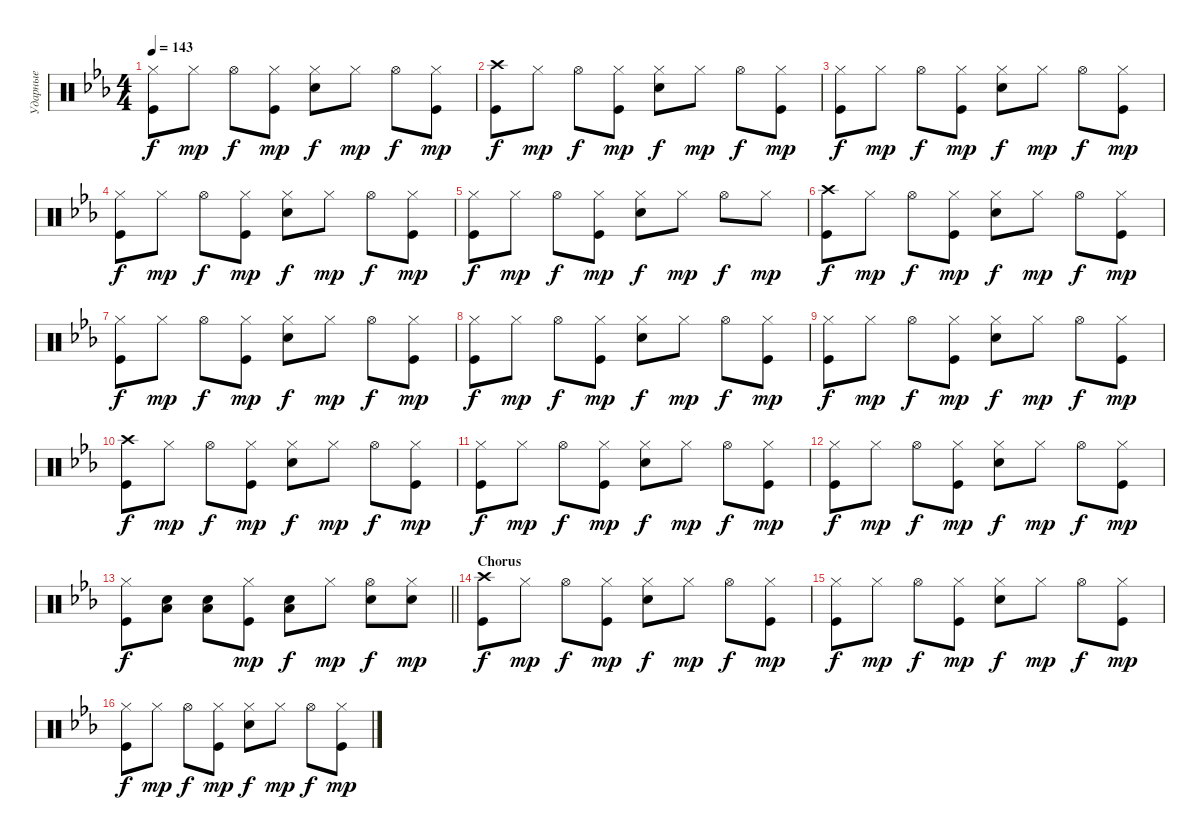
\track ("Ударные" "Ударные") {instrument percussion}
\staff {score}
\articulation defaults
\ts (4 4)
\tempo 143
\clef neutral
\ks cminor
("Kick (hit)" "Hi-Hat (closed)").8{dy f} "Hi-Hat (closed)".8{dy mp} "Hi-Hat (open)".8{dy f} ("Kick (hit)" "Hi-Hat (closed)").8{dy mp} ("Snare (hit) 2" "Hi-Hat (closed)").8{dy f} "Hi-Hat (closed)".8{dy mp} "Hi-Hat (open)".8{dy f} ("Kick (hit)" "Hi-Hat (closed)").8{dy mp} |
("Kick (hit)" "Crash high (hit)").8{dy f} "Hi-Hat (closed)".8{dy mp} "Hi-Hat (open)".8{dy f} ("Kick (hit)" "Hi-Hat (closed)").8{dy mp} ("Snare (hit) 2" "Hi-Hat (closed)").8{dy f} "Hi-Hat (closed)".8{dy mp} "Hi-Hat (open)".8{dy f} ("Kick (hit)" "Hi-Hat (closed)").8{dy mp} |
("Kick (hit)" "Hi-Hat (closed)").8{dy f} "Hi-Hat (closed)".8{dy mp} "Hi-Hat (open)".8{dy f} ("Kick (hit)" "Hi-Hat (closed)").8{dy mp} ("Snare (hit) 2" "Hi-Hat (closed)").8{dy f} "Hi-Hat (closed)".8{dy mp} "Hi-Hat (open)".8{dy f} ("Kick (hit)" "Hi-Hat (closed)").8{dy mp} |
("Kick (hit)" "Hi-Hat (closed)").8{dy f} "Hi-Hat (closed)".8{dy mp} "Hi-Hat (open)".8{dy f} ("Kick (hit)" "Hi-Hat (closed)").8{dy mp} ("Snare (hit) 2" "Hi-Hat (closed)").8{dy f} "Hi-Hat (closed)".8{dy mp} "Hi-Hat (open)".8{dy f} ("Kick (hit)" "Hi-Hat (closed)").8{dy mp} |
("Kick (hit)" "Hi-Hat (closed)").8{dy f} "Hi-Hat (closed)".8{dy mp} "Hi-Hat (open)".8{dy f} ("Kick (hit)" "Hi-Hat (closed)").8{dy mp} ("Snare (hit) 2" "Hi-Hat (closed)").8{dy f} "Hi-Hat (closed)".8{dy mp} "Hi-Hat (open)".8{dy f} "Hi-Hat (closed)".8{dy mp} |
("Kick (hit)" "Crash high (hit)").8{dy f} "Hi-Hat (closed)".8{dy mp} "Hi-Hat (open)".8{dy f} ("Kick (hit)" "Hi-Hat (closed)").8{dy mp} ("Snare (hit) 2" "Hi-Hat (closed)").8{dy f} "Hi-Hat (closed)".8{dy mp} "Hi-Hat (open)".8{dy f} ("Kick (hit)" "Hi-Hat (closed)").8{dy mp} |
("Kick (hit)" "Hi-Hat (closed)").8{dy f} "Hi-Hat (closed)".8{dy mp} "Hi-Hat (open)".8{dy f} ("Kick (hit)" "Hi-Hat (closed)").8{dy mp} ("Snare (hit) 2" "Hi-Hat (closed)").8{dy f} "Hi-Hat (closed)".8{dy mp} "Hi-Hat (open)".8{dy f} ("Kick (hit)" "Hi-Hat (closed)").8{dy mp} |
("Kick (hit)" "Hi-Hat (closed)").8{dy f} "Hi-Hat (closed)".8{dy mp} "Hi-Hat (open)".8{dy f} ("Kick (hit)" "Hi-Hat (closed)").8{dy mp} ("Snare (hit) 2" "Hi-Hat (closed)").8{dy f} "Hi-Hat (closed)".8{dy mp} "Hi-Hat (open)".8{dy f} ("Kick (hit)" "Hi-Hat (closed)").8{dy mp} |
("Kick (hit)" "Hi-Hat (closed)").8{dy f} "Hi-Hat (closed)".8{dy mp} "Hi-Hat (open)".8{dy f} ("Kick (hit)" "Hi-Hat (closed)").8{dy mp} ("Snare (hit) 2" "Hi-Hat (closed)").8{dy f} "Hi-Hat (closed)".8{dy mp} "Hi-Hat (open)".8{dy f} ("Kick (hit)" "Hi-Hat (closed)").8{dy mp} |
("Kick (hit)" "Crash high (hit)").8{dy f} "Hi-Hat (closed)".8{dy mp} "Hi-Hat (open)".8{dy f} ("Kick (hit)" "Hi-Hat (closed)").8{dy mp} ("Snare (hit) 2" "Hi-Hat (closed)").8{dy f} "Hi-Hat (closed)".8{dy mp} "Hi-Hat (open)".8{dy f} ("Kick (hit)" "Hi-Hat (closed)").8{dy mp} |
("Kick (hit)" "Hi-Hat (closed)").8{dy f} "Hi-Hat (closed)".8{dy mp} "Hi-Hat (open)".8{dy f} ("Kick (hit)" "Hi-Hat (closed)").8{dy mp} ("Snare (hit) 2" "Hi-Hat (closed)").8{dy f} "Hi-Hat (closed)".8{dy mp} "Hi-Hat (open)".8{dy f} ("Kick (hit)" "Hi-Hat (closed)").8{dy mp} |
("Kick (hit)" "Hi-Hat (closed)").8{dy f} "Hi-Hat (closed)".8{dy mp} "Hi-Hat (open)".8{dy f} ("Kick (hit)" "Hi-Hat (closed)").8{dy mp} ("Snare (hit) 2" "Hi-Hat (closed)").8{dy f} "Hi-Hat (closed)".8{dy mp} "Hi-Hat (open)".8{dy f} ("Kick (hit)" "Hi-Hat (closed)").8{dy mp} |
\barLineRight lightlight
("Kick (hit)" "Hi-Hat (closed)").8{dy f} ("Snare (hit) 2" "Low Tom (hit)").8 ("Snare (hit) 2" "Low Tom (hit)").8 ("Kick (hit)" "Hi-Hat (closed)").8{dy mp} ("Snare (hit) 2" "Low Tom (hit)").8{dy f} "Hi-Hat (closed)".8{dy mp} ("Hi-Hat (open)" "Snare (hit) 2").8{dy f} ("Hi-Hat (closed)" "Snare (hit) 2").8{dy mp} |
\section ("" "Chorus")
("Kick (hit)" "Crash high (hit)").8{dy f} "Hi-Hat (closed)".8{dy mp} "Hi-Hat (open)".8{dy f} ("Kick (hit)" "Hi-Hat (closed)").8{dy mp} ("Snare (hit) 2" "Hi-Hat (closed)").8{dy f} "Hi-Hat (closed)".8{dy mp} "Hi-Hat (open)".8{dy f} ("Kick (hit)" "Hi-Hat (closed)").8{dy mp} |
("Kick (hit)" "Hi-Hat (closed)").8{dy f} "Hi-Hat (closed)".8{dy mp} "Hi-Hat (open)".8{dy f} ("Kick (hit)" "Hi-Hat (closed)").8{dy mp} ("Snare (hit) 2" "Hi-Hat (closed)").8{dy f} "Hi-Hat (closed)".8{dy mp} "Hi-Hat (open)".8{dy f} ("Kick (hit)" "Hi-Hat (closed)").8{dy mp} |
("Kick (hit)" "Hi-Hat (closed)").8{dy f} "Hi-Hat (closed)".8{dy mp} "Hi-Hat (open)".8{dy f} ("Kick (hit)" "Hi-Hat (closed)").8{dy mp} ("Snare (hit) 2" "Hi-Hat (closed)").8{dy f} "Hi-Hat (closed)".8{dy mp} "Hi-Hat (open)".8{dy f} ("Kick (hit)" "Hi-Hat (closed)").8{dy mp}
